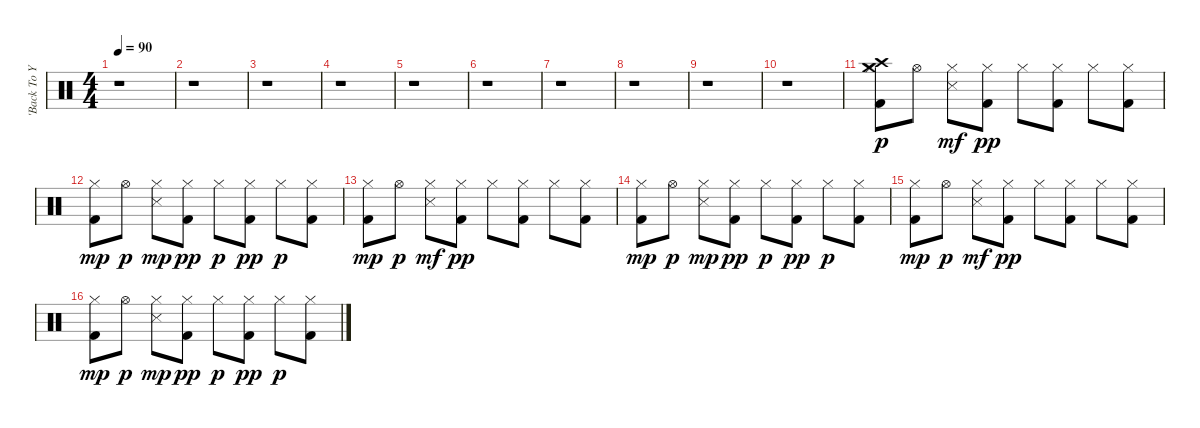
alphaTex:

\track ("'Back To Your Heart'" "'Back To Y") {instrument percussion}
\staff {score}
\articulation defaults
\ts (4 4)
\tempo 90
\clef neutral
\ks c
r.1{dy mf} |
r.1 |
r.1 |
r.1 |
r.1 |
r.1 |
r.1 |
r.1 |
r.1 |
r.1 |
("Kick (hit) 2" "Hi-Hat (closed)" "Crash high (hit)" "Crash medium (hit)").8{dy p} "Hi-Hat (open)".8 ("Snare (side stick) 3" "Hi-Hat (closed)").8{dy mf} ("Kick (hit) 2" "Hi-Hat (closed)").8{dy pp} "Hi-Hat (closed)".8 ("Kick (hit) 2" "Hi-Hat (closed)").8 "Hi-Hat (closed)".8 ("Kick (hit) 2" "Hi-Hat (closed)").8 |
("Kick (hit) 2" "Hi-Hat (closed)").8{dy mp} "Hi-Hat (open)".8{dy p} ("Snare (side stick) 3" "Hi-Hat (closed)").8{dy mp} ("Kick (hit) 2" "Hi-Hat (closed)").8{dy pp} "Hi-Hat (closed)".8{dy p} ("Kick (hit) 2" "Hi-Hat (closed)").8{dy pp} "Hi-Hat (closed)".8{dy p} ("Kick (hit) 2" "Hi-Hat (closed)").8 |
("Kick (hit) 2" "Hi-Hat (closed)").8{dy mp} "Hi-Hat (open)".8{dy p} ("Snare (side stick) 3" "Hi-Hat (closed)").8{dy mf} ("Kick (hit) 2" "Hi-Hat (closed)").8{dy pp} "Hi-Hat (closed)".8 ("Kick (hit) 2" "Hi-Hat (closed)").8 "Hi-Hat (closed)".8 ("Kick (hit) 2" "Hi-Hat (closed)").8 |
("Kick (hit) 2" "Hi-Hat (closed)").8{dy mp} "Hi-Hat (open)".8{dy p} ("Snare (side stick) 3" "Hi-Hat (closed)").8{dy mp} ("Kick (hit) 2" "Hi-Hat (closed)").8{dy pp} "Hi-Hat (closed)".8{dy p} ("Kick (hit) 2" "Hi-Hat (closed)").8{dy pp} "Hi-Hat (closed)".8{dy p} ("Kick (hit) 2" "Hi-Hat (closed)").8 |
("Kick (hit) 2" "Hi-Hat (closed)").8{dy mp} "Hi-Hat (open)".8{dy p} ("Snare (side stick) 3" "Hi-Hat (closed)").8{dy mf} ("Kick (hit) 2" "Hi-Hat (closed)").8{dy pp} "Hi-Hat (closed)".8 ("Kick (hit) 2" "Hi-Hat (closed)").8 "Hi-Hat (closed)".8 ("Kick (hit) 2" "Hi-Hat (closed)").8 |
("Kick (hit) 2" "Hi-Hat (closed)").8{dy mp} "Hi-Hat (open)".8{dy p} ("Snare (side stick) 3" "Hi-Hat (closed)").8{dy mp} ("Kick (hit) 2" "Hi-Hat (closed)").8{dy pp} "Hi-Hat (closed)".8{dy p} ("Kick (hit) 2" "Hi-Hat (closed)").8{dy pp} "Hi-Hat (closed)".8{dy p} ("Kick (hit) 2" "Hi-Hat (closed)").8
